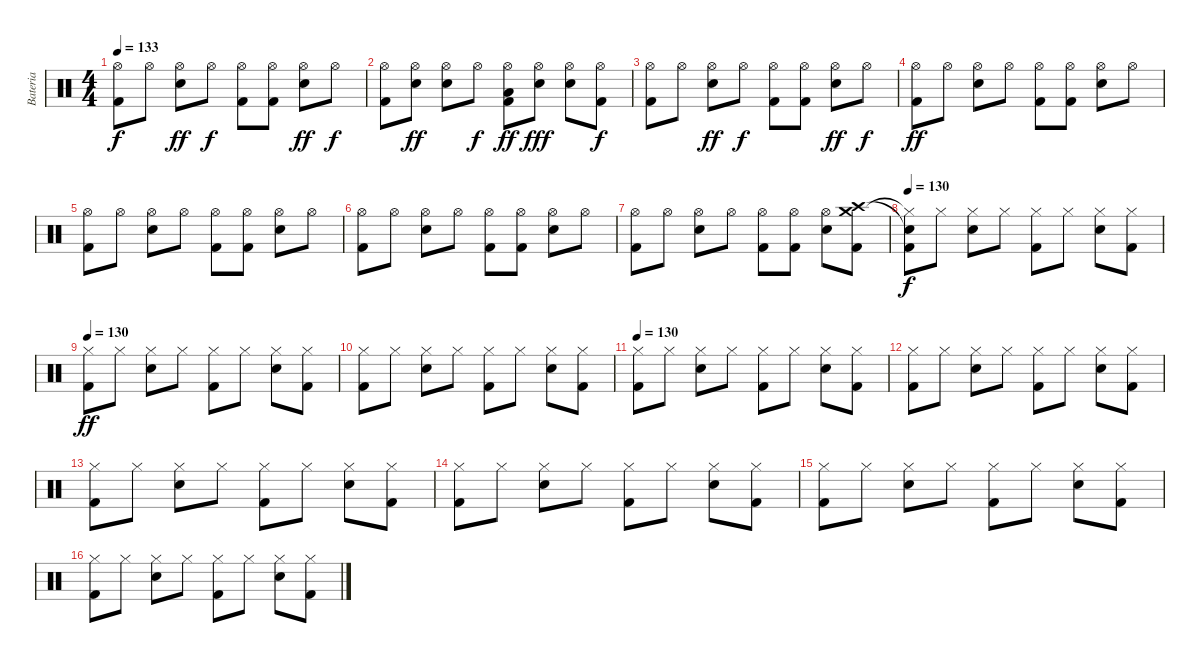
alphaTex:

\track ("Bateria" "Bateria") {instrument percussion}
\staff {score}
\articulation defaults
\ts (4 4)
\tempo 133
\clef neutral
\ks c
("Hi-Hat (open)" "Kick (hit) 2").8{dy f} "Hi-Hat (open)".8 ("Hi-Hat (open)" "Snare (hit) 2").8{dy ff} "Hi-Hat (open)".8{dy f} ("Hi-Hat (open)" "Kick (hit) 2").8 ("Hi-Hat (open)" "Kick (hit) 2").8 ("Hi-Hat (open)" "Snare (hit) 2").8{dy ff} "Hi-Hat (open)".8{dy f} |
("Hi-Hat (open)" "Kick (hit) 2").8 ("Hi-Hat (open)" "Snare (hit) 2").8{dy ff} ("Hi-Hat (open)" "Snare (hit) 2").8 "Hi-Hat (open)".8{dy f} ("Hi-Hat (open)" "Low Tom (hit)" "Kick (hit) 2").8{dy ff} ("Hi-Hat (open)" "Snare (hit) 2").8{dy fff} ("Hi-Hat (open)" "Snare (hit) 2").8 ("Hi-Hat (open)" "Kick (hit) 2").8{dy f} |
("Hi-Hat (open)" "Kick (hit) 2").8 "Hi-Hat (open)".8 ("Hi-Hat (open)" "Snare (hit) 2").8{dy ff} "Hi-Hat (open)".8{dy f} ("Hi-Hat (open)" "Kick (hit) 2").8 ("Hi-Hat (open)" "Kick (hit) 2").8 ("Hi-Hat (open)" "Snare (hit) 2").8{dy ff} "Hi-Hat (open)".8{dy f} |
("Hi-Hat (open)" "Kick (hit) 2").8{dy ff} "Hi-Hat (open)".8 ("Hi-Hat (open)" "Snare (hit) 2").8 "Hi-Hat (open)".8 ("Hi-Hat (open)" "Kick (hit) 2").8 ("Hi-Hat (open)" "Kick (hit) 2").8 ("Hi-Hat (open)" "Snare (hit) 2").8 "Hi-Hat (open)".8 |
("Hi-Hat (open)" "Kick (hit) 2").8 "Hi-Hat (open)".8 ("Hi-Hat (open)" "Snare (hit) 2").8 "Hi-Hat (open)".8 ("Hi-Hat (open)" "Kick (hit) 2").8 ("Hi-Hat (open)" "Kick (hit) 2").8 ("Hi-Hat (open)" "Snare (hit) 2").8 "Hi-Hat (open)".8 |
("Hi-Hat (open)" "Kick (hit) 2").8 "Hi-Hat (open)".8 ("Hi-Hat (open)" "Snare (hit) 2").8 "Hi-Hat (open)".8 ("Hi-Hat (open)" "Kick (hit) 2").8 ("Hi-Hat (open)" "Kick (hit) 2").8 ("Hi-Hat (open)" "Snare (hit) 2").8 "Hi-Hat (open)".8 |
("Hi-Hat (open)" "Kick (hit) 2").8 "Hi-Hat (open)".8 ("Hi-Hat (open)" "Snare (hit) 2").8 "Hi-Hat (open)".8 ("Hi-Hat (open)" "Kick (hit) 2").8 ("Hi-Hat (open)" "Kick (hit) 2").8 ("Hi-Hat (open)" "Snare (hit) 2").8 ("Crash medium (hit)" "Crash high (hit)" "Kick (hit) 2").8 |
\tempo 130
("Hi-Hat (closed)"{t} "Snare (hit)"{t} "Kick (hit) 2").8{dy f} "Hi-Hat (closed)".8 ("Hi-Hat (closed)" "Snare (hit) 2").8 "Hi-Hat (closed)".8 ("Hi-Hat (closed)" "Kick (hit) 2").8 "Hi-Hat (closed)".8 ("Hi-Hat (closed)" "Snare (hit) 2").8 ("Hi-Hat (closed)" "Kick (hit) 2").8 |
\tempo 130
("Hi-Hat (closed)" "Kick (hit) 2").8{dy ff} "Hi-Hat (closed)".8 ("Hi-Hat (closed)" "Snare (hit) 2").8 "Hi-Hat (closed)".8 ("Hi-Hat (closed)" "Kick (hit) 2").8 "Hi-Hat (closed)".8 ("Hi-Hat (closed)" "Snare (hit) 2").8 ("Hi-Hat (closed)" "Kick (hit) 2").8 |
("Hi-Hat (closed)" "Kick (hit) 2").8 "Hi-Hat (closed)".8 ("Hi-Hat (closed)" "Snare (hit) 2").8 "Hi-Hat (closed)".8 ("Hi-Hat (closed)" "Kick (hit) 2").8 "Hi-Hat (closed)".8 ("Hi-Hat (closed)" "Snare (hit) 2").8 ("Hi-Hat (closed)" "Kick (hit) 2").8 |
\tempo 130
("Hi-Hat (closed)" "Kick (hit) 2").8 "Hi-Hat (closed)".8 ("Hi-Hat (closed)" "Snare (hit) 2").8 "Hi-Hat (closed)".8 ("Hi-Hat (closed)" "Kick (hit) 2").8 "Hi-Hat (closed)".8 ("Hi-Hat (closed)" "Snare (hit) 2").8 ("Hi-Hat (closed)" "Kick (hit) 2").8 |
("Hi-Hat (closed)" "Kick (hit) 2").8 "Hi-Hat (closed)".8 ("Hi-Hat (closed)" "Snare (hit) 2").8 "Hi-Hat (closed)".8 ("Hi-Hat (closed)" "Kick (hit) 2").8 "Hi-Hat (closed)".8 ("Hi-Hat (closed)" "Snare (hit) 2").8 ("Hi-Hat (closed)" "Kick (hit) 2").8 |
("Hi-Hat (closed)" "Kick (hit) 2").8 "Hi-Hat (closed)".8 ("Hi-Hat (closed)" "Snare (hit) 2").8 "Hi-Hat (closed)".8 ("Hi-Hat (closed)" "Kick (hit) 2").8 "Hi-Hat (closed)".8 ("Hi-Hat (closed)" "Snare (hit) 2").8 ("Hi-Hat (closed)" "Kick (hit) 2").8 |
("Hi-Hat (closed)" "Kick (hit) 2").8 "Hi-Hat (closed)".8 ("Hi-Hat (closed)" "Snare (hit) 2").8 "Hi-Hat (closed)".8 ("Hi-Hat (closed)" "Kick (hit) 2").8 "Hi-Hat (closed)".8 ("Hi-Hat (closed)" "Snare (hit) 2").8 ("Hi-Hat (closed)" "Kick (hit) 2").8 |
("Hi-Hat (closed)" "Kick (hit) 2").8 "Hi-Hat (closed)".8 ("Hi-Hat (closed)" "Snare (hit) 2").8 "Hi-Hat (closed)".8 ("Hi-Hat (closed)" "Kick (hit) 2").8 "Hi-Hat (closed)".8 ("Hi-Hat (closed)" "Snare (hit) 2").8 ("Hi-Hat (closed)" "Kick (hit) 2").8 |
("Hi-Hat (closed)" "Kick (hit) 2").8 "Hi-Hat (closed)".8 ("Hi-Hat (closed)" "Snare (hit) 2").8 "Hi-Hat (closed)".8 ("Hi-Hat (closed)" "Kick (hit) 2").8 "Hi-Hat (closed)".8 ("Hi-Hat (closed)" "Snare (hit) 2").8 ("Hi-Hat (closed)" "Kick (hit) 2").8
